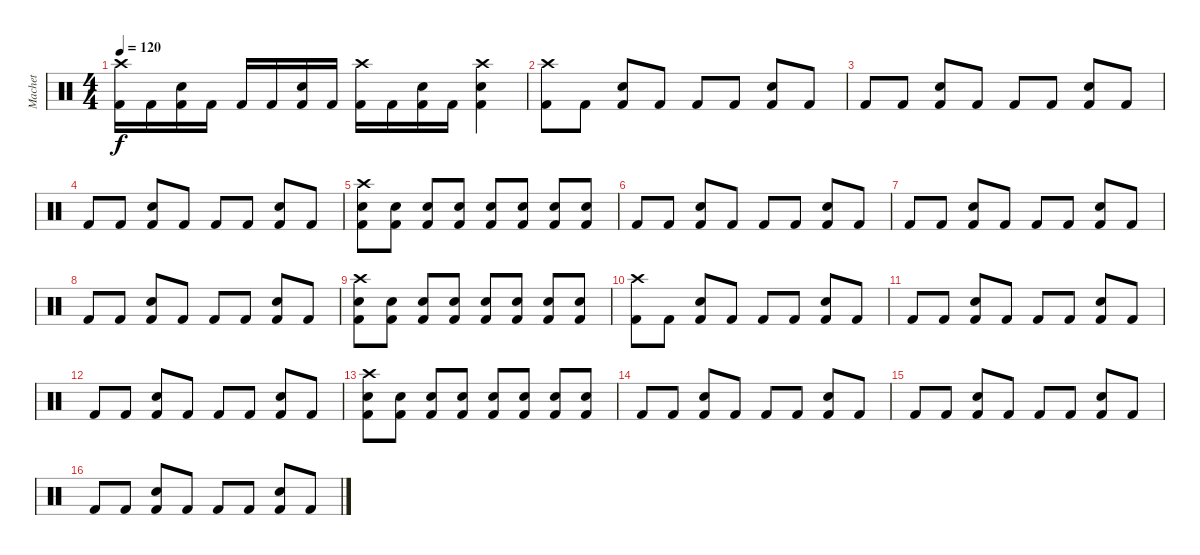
\track ("Machet" "Machet") {instrument percussion}
\staff {score}
\articulation defaults
\ts (4 4)
\tempo 120
\clef neutral
\ks c
("Crash high (hit)" "Kick (hit) 2").16{dy f} "Kick (hit) 2".16 ("Snare (hit) 2" "Kick (hit) 2").16 "Kick (hit) 2".16 "Kick (hit) 2".16 "Kick (hit) 2".16 ("Snare (hit) 2" "Kick (hit) 2").16 "Kick (hit) 2".16 ("Crash high (hit)" "Kick (hit) 2").16 "Kick (hit) 2".16 ("Snare (hit) 2" "Kick (hit) 2").16 "Kick (hit) 2".16 ("Crash high (hit)" "Snare (hit) 2" "Kick (hit) 2").4 |
("Crash high (hit)" "Kick (hit) 2").8 "Kick (hit) 2".8 ("Snare (hit) 2" "Kick (hit) 2").8 "Kick (hit) 2".8 "Kick (hit) 2".8 "Kick (hit) 2".8 ("Snare (hit) 2" "Kick (hit) 2").8 "Kick (hit) 2".8 |
"Kick (hit) 2".8 "Kick (hit) 2".8 ("Snare (hit) 2" "Kick (hit) 2").8 "Kick (hit) 2".8 "Kick (hit) 2".8 "Kick (hit) 2".8 ("Snare (hit) 2" "Kick (hit) 2").8 "Kick (hit) 2".8 |
"Kick (hit) 2".8 "Kick (hit) 2".8 ("Snare (hit) 2" "Kick (hit) 2").8 "Kick (hit) 2".8 "Kick (hit) 2".8 "Kick (hit) 2".8 ("Snare (hit) 2" "Kick (hit) 2").8 "Kick (hit) 2".8 |
("Crash high (hit)" "Snare (hit) 2" "Kick (hit) 2").8 ("Snare (hit) 2" "Kick (hit) 2").8 ("Snare (hit) 2" "Kick (hit) 2").8 ("Snare (hit) 2" "Kick (hit) 2").8 ("Snare (hit) 2" "Kick (hit) 2").8 ("Snare (hit) 2" "Kick (hit) 2").8 ("Snare (hit) 2" "Kick (hit) 2").8 ("Snare (hit) 2" "Kick (hit) 2").8 |
"Kick (hit) 2".8 "Kick (hit) 2".8 ("Snare (hit) 2" "Kick (hit) 2").8 "Kick (hit) 2".8 "Kick (hit) 2".8 "Kick (hit) 2".8 ("Snare (hit) 2" "Kick (hit) 2").8 "Kick (hit) 2".8 |
"Kick (hit) 2".8 "Kick (hit) 2".8 ("Snare (hit) 2" "Kick (hit) 2").8 "Kick (hit) 2".8 "Kick (hit) 2".8 "Kick (hit) 2".8 ("Snare (hit) 2" "Kick (hit) 2").8 "Kick (hit) 2".8 |
"Kick (hit) 2".8 "Kick (hit) 2".8 ("Snare (hit) 2" "Kick (hit) 2").8 "Kick (hit) 2".8 "Kick (hit) 2".8 "Kick (hit) 2".8 ("Snare (hit) 2" "Kick (hit) 2").8 "Kick (hit) 2".8 |
("Crash high (hit)" "Snare (hit) 2" "Kick (hit) 2").8 ("Snare (hit) 2" "Kick (hit) 2").8 ("Snare (hit) 2" "Kick (hit) 2").8 ("Snare (hit) 2" "Kick (hit) 2").8 ("Snare (hit) 2" "Kick (hit) 2").8 ("Snare (hit) 2" "Kick (hit) 2").8 ("Snare (hit) 2" "Kick (hit) 2").8 ("Snare (hit) 2" "Kick (hit) 2").8 |
("Crash high (hit)" "Kick (hit) 2").8 "Kick (hit) 2".8 ("Snare (hit) 2" "Kick (hit) 2").8 "Kick (hit) 2".8 "Kick (hit) 2".8 "Kick (hit) 2".8 ("Snare (hit) 2" "Kick (hit) 2").8 "Kick (hit) 2".8 |
"Kick (hit) 2".8 "Kick (hit) 2".8 ("Snare (hit) 2" "Kick (hit) 2").8 "Kick (hit) 2".8 "Kick (hit) 2".8 "Kick (hit) 2".8 ("Snare (hit) 2" "Kick (hit) 2").8 "Kick (hit) 2".8 |
"Kick (hit) 2".8 "Kick (hit) 2".8 ("Snare (hit) 2" "Kick (hit) 2").8 "Kick (hit) 2".8 "Kick (hit) 2".8 "Kick (hit) 2".8 ("Snare (hit) 2" "Kick (hit) 2").8 "Kick (hit) 2".8 |
("Crash high (hit)" "Snare (hit) 2" "Kick (hit) 2").8 ("Snare (hit) 2" "Kick (hit) 2").8 ("Snare (hit) 2" "Kick (hit) 2").8 ("Snare (hit) 2" "Kick (hit) 2").8 ("Snare (hit) 2" "Kick (hit) 2").8 ("Snare (hit) 2" "Kick (hit) 2").8 ("Snare (hit) 2" "Kick (hit) 2").8 ("Snare (hit) 2" "Kick (hit) 2").8 |
"Kick (hit) 2".8 "Kick (hit) 2".8 ("Snare (hit) 2" "Kick (hit) 2").8 "Kick (hit) 2".8 "Kick (hit) 2".8 "Kick (hit) 2".8 ("Snare (hit) 2" "Kick (hit) 2").8 "Kick (hit) 2".8 |
"Kick (hit) 2".8 "Kick (hit) 2".8 ("Snare (hit) 2" "Kick (hit) 2").8 "Kick (hit) 2".8 "Kick (hit) 2".8 "Kick (hit) 2".8 ("Snare (hit) 2" "Kick (hit) 2").8 "Kick (hit) 2".8 |
"Kick (hit) 2".8 "Kick (hit) 2".8 ("Snare (hit) 2" "Kick (hit) 2").8 "Kick (hit) 2".8 "Kick (hit) 2".8 "Kick (hit) 2".8 ("Snare (hit) 2" "Kick (hit) 2").8 "Kick (hit) 2".8
